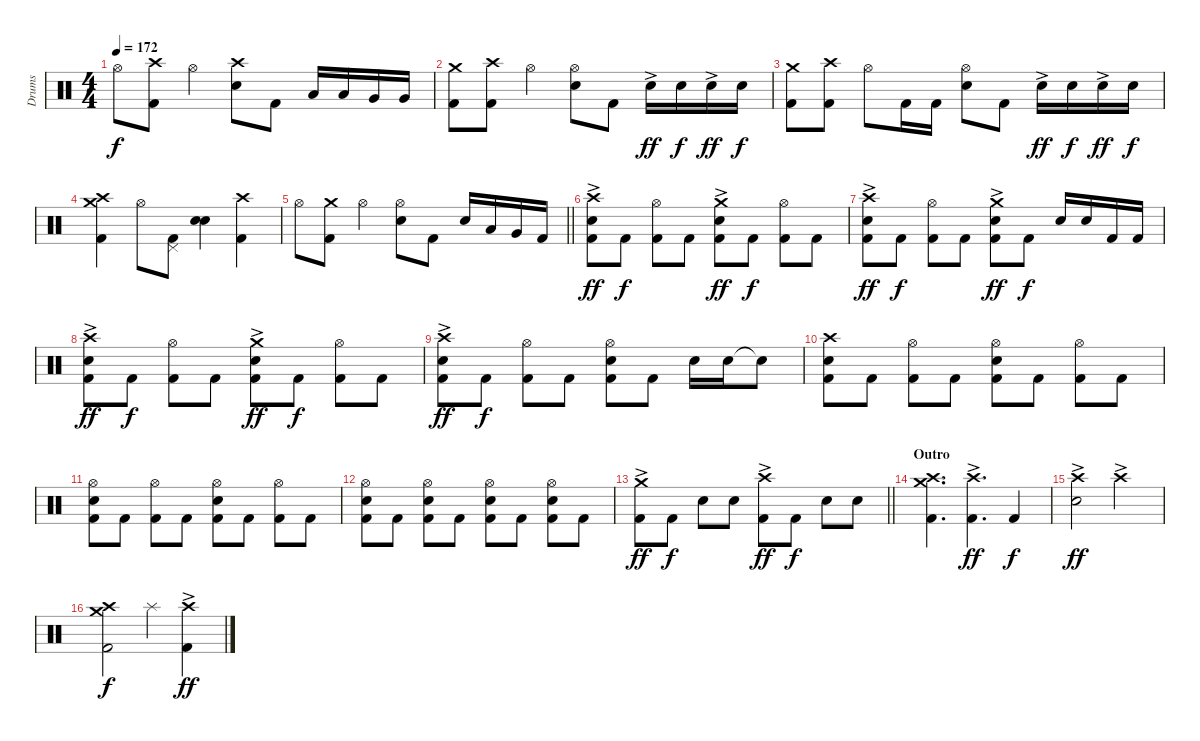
\track ("Drums" "Drums") {instrument percussion}
\staff {score}
\articulation defaults
\ts (4 4)
\tempo 172
\clef neutral
\ks c "Hi-Hat (open)".8{dy f}
("Crash high (hit)" "Kick (hit) 2").8 "Hi-Hat (open)".4 ("Crash high (hit)" "Electric Snare (hit)").8 "Kick (hit) 2".8 "Low Tom (hit)".16 "Low Tom (hit)".16 "Very Low Tom (hit)".16 "Very Low Tom (hit)".16 |
("Crash medium (hit)" "Kick (hit) 2").8 ("Crash high (hit)" "Kick (hit) 2").8 "Hi-Hat (open)".4 ("Hi-Hat (open)" "Electric Snare (hit)").8 "Kick (hit) 2".8 "Electric Snare (hit)"{ac}.16{dy ff} "Electric Snare (hit)".16{dy f} "Electric Snare (hit)"{ac}.16{dy ff} "Electric Snare (hit)".16{dy f} |
("Crash medium (hit)" "Kick (hit) 2").8 ("Crash high (hit)" "Kick (hit) 2").8 "Hi-Hat (open)".8 "Kick (hit) 2".16 "Kick (hit) 2".16 ("Hi-Hat (open)" "Electric Snare (hit)").8 "Kick (hit) 2".8 "Electric Snare (hit)"{ac}.16{dy ff} "Electric Snare (hit)".16{dy f} "Electric Snare (hit)"{ac}.16{dy ff} "Electric Snare (hit)".16{dy f} |
("Crash medium (hit)" "Crash high (hit)" "Kick (hit) 2").4 "Hi-Hat (open)".8 ("Pedal Hi-Hat (hit)" "Kick (hit) 2").8 ("Electric Snare (hit)" "Electric Snare (hit)").4{bu 120} ("Crash high (hit)" "Kick (hit) 2").4 |
\barLineRight lightlight "Hi-Hat (open)".8
("Crash medium (hit)" "Kick (hit) 2").8 "Hi-Hat (open)".4 ("Hi-Hat (open)" "Electric Snare (hit)").8 "Kick (hit) 2".8 "Electric Snare (hit)".16 "Low Tom (hit)".16 "Very Low Tom (hit)".16 "Kick (hit) 2".16 |
\section ("" "")
("Crash high (hit)"{ac} "Electric Snare (hit)" "Kick (hit) 2").8{dy ff} "Kick (hit) 2".8{dy f} ("Hi-Hat (open)" "Kick (hit) 2").8 "Kick (hit) 2".8 ("Crash medium (hit)"{ac} "Electric Snare (hit)" "Kick (hit) 2").8{dy ff} "Kick (hit) 2".8{dy f} ("Hi-Hat (open)" "Kick (hit) 2").8 "Kick (hit) 2".8 |
("Crash high (hit)"{ac} "Electric Snare (hit)" "Kick (hit) 2").8{dy ff} "Kick (hit) 2".8{dy f} ("Hi-Hat (open)" "Kick (hit) 2").8 "Kick (hit) 2".8 ("Crash medium (hit)"{ac} "Electric Snare (hit)" "Kick (hit) 2").8{dy ff} "Kick (hit) 2".8{dy f} "Electric Snare (hit)".16 "Electric Snare (hit)".16 "Kick (hit) 2".16 "Kick (hit) 2".16 |
("Crash high (hit)"{ac} "Electric Snare (hit)" "Kick (hit) 2").8{dy ff} "Kick (hit) 2".8{dy f} ("Hi-Hat (open)" "Kick (hit) 2").8 "Kick (hit) 2".8 ("Crash medium (hit)"{ac} "Electric Snare (hit)" "Kick (hit) 2").8{dy ff} "Kick (hit) 2".8{dy f} ("Hi-Hat (open)" "Kick (hit) 2").8 "Kick (hit) 2".8 |
("Crash high (hit)"{ac} "Electric Snare (hit)" "Kick (hit) 2").8{dy ff} "Kick (hit) 2".8{dy f} ("Hi-Hat (open)" "Kick (hit) 2").8 "Kick (hit) 2".8 ("Hi-Hat (open)" "Electric Snare (hit)" "Kick (hit) 2").8 "Kick (hit) 2".8 "Electric Snare (hit)".16 "Electric Snare (hit)".16 "Snare (hit)"{t}.8 |
("Crash high (hit)" "Electric Snare (hit)" "Kick (hit) 2").8 "Kick (hit) 2".8 ("Hi-Hat (open)" "Kick (hit) 2").8 "Kick (hit) 2".8 ("Hi-Hat (open)" "Electric Snare (hit)" "Kick (hit) 2").8 "Kick (hit) 2".8 ("Hi-Hat (open)" "Kick (hit) 2").8 "Kick (hit) 2".8 |
("Hi-Hat (open)" "Electric Snare (hit)" "Kick (hit) 2").8 "Kick (hit) 2".8 ("Hi-Hat (open)" "Kick (hit) 2").8 "Kick (hit) 2".8 ("Hi-Hat (open)" "Electric Snare (hit)" "Kick (hit) 2").8 "Kick (hit) 2".8 ("Hi-Hat (open)" "Kick (hit) 2").8 "Kick (hit) 2".8 |
("Hi-Hat (open)" "Electric Snare (hit)" "Kick (hit) 2").8 "Kick (hit) 2".8 ("Hi-Hat (open)" "Electric Snare (hit)" "Kick (hit) 2").8 "Kick (hit) 2".8 ("Hi-Hat (open)" "Electric Snare (hit)" "Kick (hit) 2").8 "Kick (hit) 2".8 ("Hi-Hat (open)" "Electric Snare (hit)" "Kick (hit) 2").8 "Kick (hit) 2".8 |
\barLineRight lightlight
("Crash medium (hit)"{ac} "Kick (hit) 2").8{dy ff} "Kick (hit) 2".8{dy f} "Electric Snare (hit)".8 "Electric Snare (hit)".8 ("Crash high (hit)"{ac} "Kick (hit) 2").8{dy ff} "Kick (hit) 2".8{dy f} "Electric Snare (hit)".8 "Electric Snare (hit)".8 |
\section ("" "Outro")
("Crash medium (hit)" "Crash high (hit)" "Kick (hit) 2").4{d} ("Crash high (hit)"{ac} "Kick (hit) 2").4{d dy ff} "Kick (hit) 2".4{dy f} |
("Crash high (hit)"{ac} "Electric Snare (hit)").2{dy ff} "Crash high (hit)"{ac}.2 |
("Crash medium (hit)" "Crash high (hit)" "Kick (hit) 2").2{dy f} "Splash (hit)".4 ("Crash high (hit)"{ac} "Kick (hit) 2").4{dy ff}
